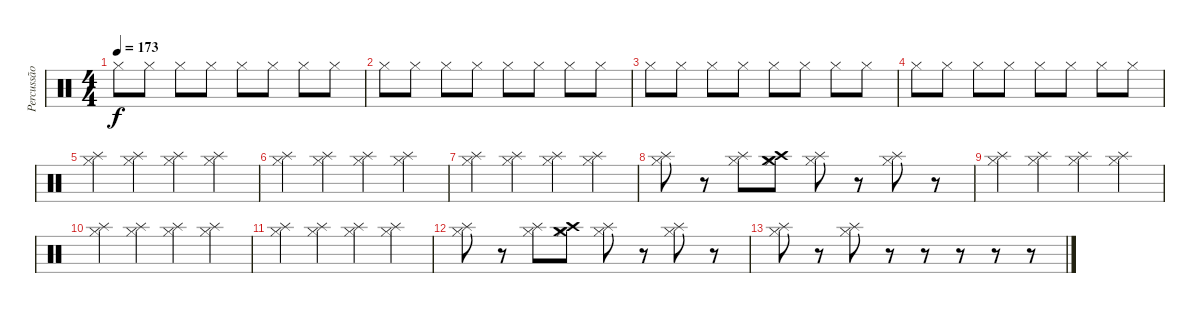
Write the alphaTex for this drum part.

\track ("Percussão" "Percussão") {instrument percussion}
\staff {score}
\articulation defaults
\ts (4 4)
\tempo 173
\clef neutral
\ks c "Hi-Hat (closed)".8{dy f} "Hi-Hat (closed)".8 "Hi-Hat (closed)".8 "Hi-Hat (closed)".8 "Hi-Hat (closed)".8 "Hi-Hat (closed)".8 "Hi-Hat (closed)".8 "Hi-Hat (closed)".8
|
"Hi-Hat (closed)".8 "Hi-Hat (closed)".8 "Hi-Hat (closed)".8 "Hi-Hat (closed)".8 "Hi-Hat (closed)".8 "Hi-Hat (closed)".8 "Hi-Hat (closed)".8 "Hi-Hat (closed)".8 |
"Hi-Hat (closed)".8 "Hi-Hat (closed)".8 "Hi-Hat (closed)".8 "Hi-Hat (closed)".8 "Hi-Hat (closed)".8 "Hi-Hat (closed)".8 "Hi-Hat (closed)".8 "Hi-Hat (closed)".8 |
"Hi-Hat (closed)".8 "Hi-Hat (closed)".8 "Hi-Hat (closed)".8 "Hi-Hat (closed)".8 "Hi-Hat (closed)".8 "Hi-Hat (closed)".8 "Hi-Hat (closed)".8 "Hi-Hat (closed)".8 |
("Splash (hit)" "Hi-Hat (closed)").4 ("Splash (hit)" "Hi-Hat (closed)").4 ("Splash (hit)" "Hi-Hat (closed)").4 ("Splash (hit)" "Hi-Hat (closed)").4 |
("Splash (hit)" "Hi-Hat (closed)").4 ("Splash (hit)" "Hi-Hat (closed)").4 ("Splash (hit)" "Hi-Hat (closed)").4 ("Splash (hit)" "Hi-Hat (closed)").4 |
("Splash (hit)" "Hi-Hat (closed)").4 ("Splash (hit)" "Hi-Hat (closed)").4 ("Splash (hit)" "Hi-Hat (closed)").4 ("Splash (hit)" "Hi-Hat (closed)").4 |
("Splash (hit)" "Hi-Hat (closed)").8 r.8 ("Splash (hit)" "Hi-Hat (closed)").8 ("Crash high (hit)" "Crash medium (hit)" "Hi-Hat (closed)").8 ("Splash (hit)" "Hi-Hat (closed)").8 r.8 ("Splash (hit)" "Hi-Hat (closed)").8 r.8 |
("Splash (hit)" "Hi-Hat (closed)").4 ("Splash (hit)" "Hi-Hat (closed)").4 ("Splash (hit)" "Hi-Hat (closed)").4 ("Splash (hit)" "Hi-Hat (closed)").4 |
("Splash (hit)" "Hi-Hat (closed)").4 ("Splash (hit)" "Hi-Hat (closed)").4 ("Splash (hit)" "Hi-Hat (closed)").4 ("Splash (hit)" "Hi-Hat (closed)").4 |
("Splash (hit)" "Hi-Hat (closed)").4 ("Splash (hit)" "Hi-Hat (closed)").4 ("Splash (hit)" "Hi-Hat (closed)").4 ("Splash (hit)" "Hi-Hat (closed)").4 |
("Splash (hit)" "Hi-Hat (closed)").8 r.8 ("Splash (hit)" "Hi-Hat (closed)").8 ("Crash high (hit)" "Crash medium (hit)" "Hi-Hat (closed)").8 ("Splash (hit)" "Hi-Hat (closed)").8 r.8 ("Splash (hit)" "Hi-Hat (closed)").8 r.8 |
("Hi-Hat (closed)" "Splash (hit)").8 r.8 ("Hi-Hat (closed)" "Splash (hit)").8 r.8 r.8 r.8 r.8 r.8
